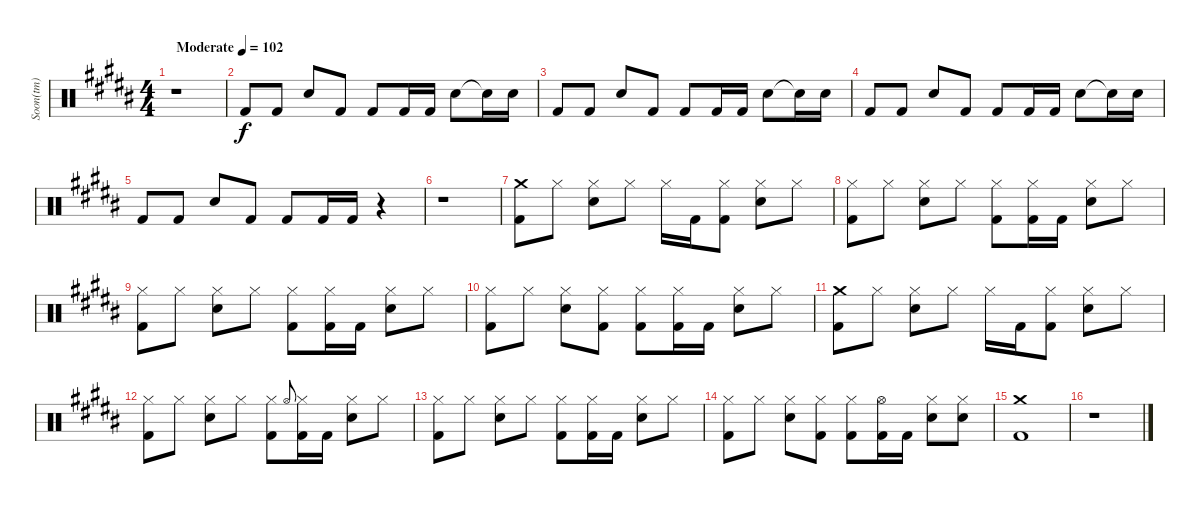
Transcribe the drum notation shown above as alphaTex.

\track ("Soon(tm)" "Soon(tm)") {instrument percussion}
\staff {score}
\articulation defaults
\ts (4 4)
\tempo (102 "Moderate")
\clef neutral
\ks g#minor
r.1{dy f} |
"Kick (hit) 2".8 "Kick (hit) 2".8 "Snare (hit) 2".8 "Kick (hit) 2".8 "Kick (hit) 2".8 "Kick (hit) 2".16 "Kick (hit) 2".16 "Snare (hit) 2".8 "Snare (hit)"{t}.16 "Snare (hit) 2".16 |
"Kick (hit) 2".8 "Kick (hit) 2".8 "Snare (hit) 2".8 "Kick (hit) 2".8 "Kick (hit) 2".8 "Kick (hit) 2".16 "Kick (hit) 2".16 "Snare (hit) 2".8 "Snare (hit)"{t}.16 "Snare (hit) 2".16 |
"Kick (hit) 2".8 "Kick (hit) 2".8 "Snare (hit) 2".8 "Kick (hit) 2".8 "Kick (hit) 2".8 "Kick (hit) 2".16 "Kick (hit) 2".16 "Snare (hit) 2".8 "Snare (hit)"{t}.16 "Snare (hit) 2".16 |
"Kick (hit) 2".8 "Kick (hit) 2".8 "Snare (hit) 2".8 "Kick (hit) 2".8 "Kick (hit) 2".8 "Kick (hit) 2".16 "Kick (hit) 2".16 r.4 |
r.1 |
("Crash medium (hit)" "Kick (hit) 2").8 "Hi-Hat (closed)".8 ("Snare (hit) 2" "Hi-Hat (closed)").8 "Hi-Hat (closed)".8 "Hi-Hat (closed)".16 "Kick (hit) 2".16 ("Hi-Hat (closed)" "Kick (hit) 2").8 ("Snare (hit) 2" "Hi-Hat (closed)").8 "Hi-Hat (closed)".8 |
("Hi-Hat (closed)" "Kick (hit) 2").8 "Hi-Hat (closed)".8 ("Snare (hit) 2" "Hi-Hat (closed)").8 "Hi-Hat (closed)".8 ("Hi-Hat (closed)" "Kick (hit) 2").8 ("Hi-Hat (closed)" "Kick (hit) 2").16 "Kick (hit) 2".16 ("Snare (hit) 2" "Hi-Hat (closed)").8 "Hi-Hat (closed)".8 |
("Hi-Hat (closed)" "Kick (hit) 2").8 "Hi-Hat (closed)".8 ("Snare (hit) 2" "Hi-Hat (closed)").8 "Hi-Hat (closed)".8 ("Hi-Hat (closed)" "Kick (hit) 2").8 ("Hi-Hat (closed)" "Kick (hit) 2").16 "Kick (hit) 2".16 ("Snare (hit) 2" "Hi-Hat (closed)").8 "Hi-Hat (closed)".8 |
("Hi-Hat (closed)" "Kick (hit) 2").8 "Hi-Hat (closed)".8 ("Snare (hit) 2" "Hi-Hat (closed)").8 ("Hi-Hat (closed)" "Kick (hit) 2").8 ("Hi-Hat (closed)" "Kick (hit) 2").8 ("Hi-Hat (closed)" "Kick (hit) 2").16 "Kick (hit) 2".16 ("Snare (hit) 2" "Hi-Hat (closed)").8 "Hi-Hat (closed)".8 |
("Crash medium (hit)" "Kick (hit) 2").8 "Hi-Hat (closed)".8 ("Snare (hit) 2" "Hi-Hat (closed)").8 "Hi-Hat (closed)".8 "Hi-Hat (closed)".16 "Kick (hit) 2".16 ("Hi-Hat (closed)" "Kick (hit) 2").8 ("Snare (hit) 2" "Hi-Hat (closed)").8 "Hi-Hat (closed)".8 |
("Hi-Hat (closed)" "Kick (hit) 2").8 "Hi-Hat (closed)".8 ("Snare (hit) 2" "Hi-Hat (closed)").8 "Hi-Hat (closed)".8 ("Hi-Hat (closed)" "Kick (hit) 2").8 "Hi-Hat (open)".8{gr onbeat} ("Hi-Hat (closed)" "Kick (hit) 2").16 "Kick (hit) 2".16 ("Snare (hit) 2" "Hi-Hat (closed)").8 "Hi-Hat (closed)".8 |
("Hi-Hat (closed)" "Kick (hit) 2").8 "Hi-Hat (closed)".8 ("Snare (hit) 2" "Hi-Hat (closed)").8 "Hi-Hat (closed)".8 ("Hi-Hat (closed)" "Kick (hit) 2").8 ("Hi-Hat (closed)" "Kick (hit) 2").16 "Kick (hit) 2".16 ("Snare (hit) 2" "Hi-Hat (closed)").8 "Hi-Hat (closed)".8 |
("Hi-Hat (closed)" "Kick (hit) 2").8 "Hi-Hat (closed)".8 ("Snare (hit) 2" "Hi-Hat (closed)").8 ("Hi-Hat (closed)" "Kick (hit) 2").8 ("Hi-Hat (closed)" "Kick (hit) 2").8 ("Hi-Hat (open)" "Kick (hit) 2").16 "Kick (hit) 2".16 ("Snare (hit) 2" "Hi-Hat (closed)").8 ("Snare (hit) 2" "Hi-Hat (closed)").8 |
("Crash medium (hit)" "Kick (hit) 2").1 |
r.1
